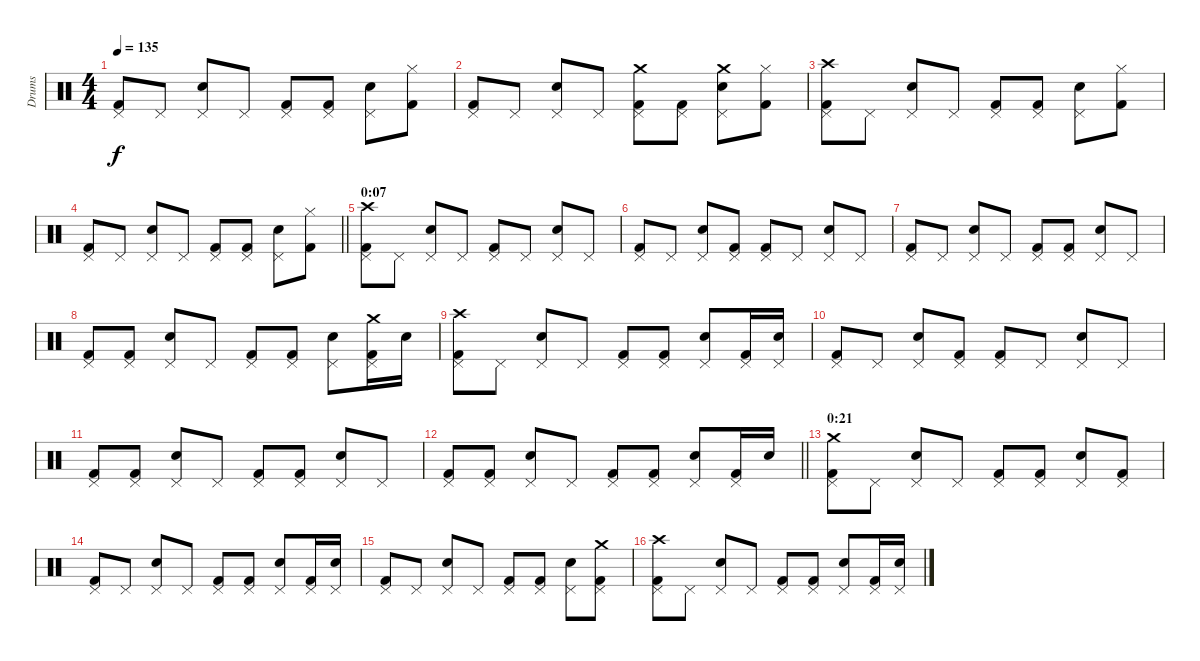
\track ("Drums" "Drums") {instrument percussion}
\staff {score}
\articulation defaults
\ts (4 4)
\tempo 135
\clef neutral
\ks c
("Pedal Hi-Hat (hit)" "Kick (hit) 2").8{dy f} "Pedal Hi-Hat (hit)".8 ("Pedal Hi-Hat (hit)" "Snare (hit) 2").8 "Pedal Hi-Hat (hit)".8 ("Pedal Hi-Hat (hit)" "Kick (hit) 2").8 ("Pedal Hi-Hat (hit)" "Kick (hit) 2").8 ("Pedal Hi-Hat (hit)" "Snare (hit) 2").8 ("Hi-Hat (closed)" "Kick (hit) 2").8 |
("Pedal Hi-Hat (hit)" "Kick (hit) 2").8 "Pedal Hi-Hat (hit)".8 ("Pedal Hi-Hat (hit)" "Snare (hit) 2").8 "Pedal Hi-Hat (hit)".8 ("Pedal Hi-Hat (hit)" "Crash medium (hit)" "Kick (hit) 2").8 ("Pedal Hi-Hat (hit)" "Kick (hit) 2").8 ("Pedal Hi-Hat (hit)" "Crash medium (hit)" "Snare (hit) 2").8 ("Hi-Hat (closed)" "Kick (hit) 2").8 |
("Pedal Hi-Hat (hit)" "Crash high (hit)" "Kick (hit) 2").8 "Pedal Hi-Hat (hit)".8 ("Pedal Hi-Hat (hit)" "Snare (hit) 2").8 "Pedal Hi-Hat (hit)".8 ("Pedal Hi-Hat (hit)" "Kick (hit) 2").8 ("Pedal Hi-Hat (hit)" "Kick (hit) 2").8 ("Pedal Hi-Hat (hit)" "Snare (hit) 2").8 ("Hi-Hat (closed)" "Kick (hit) 2").8 |
\barLineRight lightlight
("Pedal Hi-Hat (hit)" "Kick (hit) 2").8 "Pedal Hi-Hat (hit)".8 ("Pedal Hi-Hat (hit)" "Snare (hit) 2").8 "Pedal Hi-Hat (hit)".8 ("Pedal Hi-Hat (hit)" "Kick (hit) 2").8 ("Pedal Hi-Hat (hit)" "Kick (hit) 2").8 ("Pedal Hi-Hat (hit)" "Snare (hit) 2").8 ("Hi-Hat (closed)" "Kick (hit) 2").8 |
\section ("" "0:07")
("Pedal Hi-Hat (hit)" "Crash high (hit)" "Kick (hit) 2").8 "Pedal Hi-Hat (hit)".8 ("Pedal Hi-Hat (hit)" "Snare (hit) 2").8 "Pedal Hi-Hat (hit)".8 ("Pedal Hi-Hat (hit)" "Kick (hit) 2").8 "Pedal Hi-Hat (hit)".8 ("Pedal Hi-Hat (hit)" "Snare (hit) 2").8 "Pedal Hi-Hat (hit)".8 |
("Pedal Hi-Hat (hit)" "Kick (hit) 2").8 "Pedal Hi-Hat (hit)".8 ("Pedal Hi-Hat (hit)" "Snare (hit) 2").8 ("Pedal Hi-Hat (hit)" "Kick (hit) 2").8 ("Pedal Hi-Hat (hit)" "Kick (hit) 2").8 "Pedal Hi-Hat (hit)".8 ("Pedal Hi-Hat (hit)" "Snare (hit) 2").8 "Pedal Hi-Hat (hit)".8 |
("Pedal Hi-Hat (hit)" "Kick (hit) 2").8 "Pedal Hi-Hat (hit)".8 ("Pedal Hi-Hat (hit)" "Snare (hit) 2").8 "Pedal Hi-Hat (hit)".8 ("Pedal Hi-Hat (hit)" "Kick (hit) 2").8 ("Pedal Hi-Hat (hit)" "Kick (hit) 2").8 ("Pedal Hi-Hat (hit)" "Snare (hit) 2").8 "Pedal Hi-Hat (hit)".8 |
("Pedal Hi-Hat (hit)" "Kick (hit) 2").8 ("Pedal Hi-Hat (hit)" "Kick (hit) 2").8 ("Pedal Hi-Hat (hit)" "Snare (hit) 2").8 "Pedal Hi-Hat (hit)".8 ("Pedal Hi-Hat (hit)" "Kick (hit) 2").8 ("Pedal Hi-Hat (hit)" "Kick (hit) 2").8 ("Pedal Hi-Hat (hit)" "Snare (hit) 2").8 ("Pedal Hi-Hat (hit)" "Crash medium (hit)" "Kick (hit) 2").16 "Snare (hit) 2".16 |
("Pedal Hi-Hat (hit)" "Crash high (hit)" "Kick (hit) 2").8 "Pedal Hi-Hat (hit)".8 ("Pedal Hi-Hat (hit)" "Snare (hit) 2").8 "Pedal Hi-Hat (hit)".8 ("Pedal Hi-Hat (hit)" "Kick (hit) 2").8 ("Pedal Hi-Hat (hit)" "Kick (hit) 2").8 ("Pedal Hi-Hat (hit)" "Snare (hit) 2").8 ("Pedal Hi-Hat (hit)" "Kick (hit) 2").16 ("Pedal Hi-Hat (hit)" "Snare (hit) 2").16 |
("Pedal Hi-Hat (hit)" "Kick (hit) 2").8 "Pedal Hi-Hat (hit)".8 ("Pedal Hi-Hat (hit)" "Snare (hit) 2").8 ("Pedal Hi-Hat (hit)" "Kick (hit) 2").8 ("Pedal Hi-Hat (hit)" "Kick (hit) 2").8 "Pedal Hi-Hat (hit)".8 ("Pedal Hi-Hat (hit)" "Snare (hit) 2").8 "Pedal Hi-Hat (hit)".8 |
("Pedal Hi-Hat (hit)" "Kick (hit) 2").8 ("Pedal Hi-Hat (hit)" "Kick (hit) 2").8 ("Pedal Hi-Hat (hit)" "Snare (hit) 2").8 "Pedal Hi-Hat (hit)".8 ("Pedal Hi-Hat (hit)" "Kick (hit) 2").8 ("Pedal Hi-Hat (hit)" "Kick (hit) 2").8 ("Pedal Hi-Hat (hit)" "Snare (hit) 2").8 "Pedal Hi-Hat (hit)".8 |
\barLineRight lightlight
("Pedal Hi-Hat (hit)" "Kick (hit) 2").8 ("Pedal Hi-Hat (hit)" "Kick (hit) 2").8 ("Pedal Hi-Hat (hit)" "Snare (hit) 2").8 "Pedal Hi-Hat (hit)".8 ("Pedal Hi-Hat (hit)" "Kick (hit) 2").8 ("Pedal Hi-Hat (hit)" "Kick (hit) 2").8 ("Pedal Hi-Hat (hit)" "Snare (hit) 2").8 ("Pedal Hi-Hat (hit)" "Kick (hit) 2").16 "Snare (hit) 2".16 |
\section ("" "0:21")
("Pedal Hi-Hat (hit)" "Crash medium (hit)" "Kick (hit) 2").8 "Pedal Hi-Hat (hit)".8 ("Pedal Hi-Hat (hit)" "Snare (hit) 2").8 "Pedal Hi-Hat (hit)".8 ("Pedal Hi-Hat (hit)" "Kick (hit) 2").8 ("Pedal Hi-Hat (hit)" "Kick (hit) 2").8 ("Pedal Hi-Hat (hit)" "Snare (hit) 2").8 ("Pedal Hi-Hat (hit)" "Kick (hit) 2").8 |
("Pedal Hi-Hat (hit)" "Kick (hit) 2").8 "Pedal Hi-Hat (hit)".8 ("Pedal Hi-Hat (hit)" "Snare (hit) 2").8 "Pedal Hi-Hat (hit)".8 ("Pedal Hi-Hat (hit)" "Kick (hit) 2").8 ("Pedal Hi-Hat (hit)" "Kick (hit) 2").8 ("Pedal Hi-Hat (hit)" "Snare (hit) 2").8 ("Pedal Hi-Hat (hit)" "Kick (hit) 2").16 ("Pedal Hi-Hat (hit)" "Snare (hit) 2").16 |
("Pedal Hi-Hat (hit)" "Kick (hit) 2").8 "Pedal Hi-Hat (hit)".8 ("Pedal Hi-Hat (hit)" "Snare (hit) 2").8 "Pedal Hi-Hat (hit)".8 ("Pedal Hi-Hat (hit)" "Kick (hit) 2").8 ("Pedal Hi-Hat (hit)" "Kick (hit) 2").8 ("Pedal Hi-Hat (hit)" "Snare (hit) 2").8 ("Pedal Hi-Hat (hit)" "Crash medium (hit)" "Kick (hit) 2").8 |
("Pedal Hi-Hat (hit)" "Crash high (hit)" "Kick (hit) 2").8 "Pedal Hi-Hat (hit)".8 ("Pedal Hi-Hat (hit)" "Snare (hit) 2").8 "Pedal Hi-Hat (hit)".8 ("Pedal Hi-Hat (hit)" "Kick (hit) 2").8 ("Pedal Hi-Hat (hit)" "Kick (hit) 2").8 ("Pedal Hi-Hat (hit)" "Snare (hit) 2").8 ("Pedal Hi-Hat (hit)" "Kick (hit) 2").16 ("Pedal Hi-Hat (hit)" "Snare (hit) 2").16
